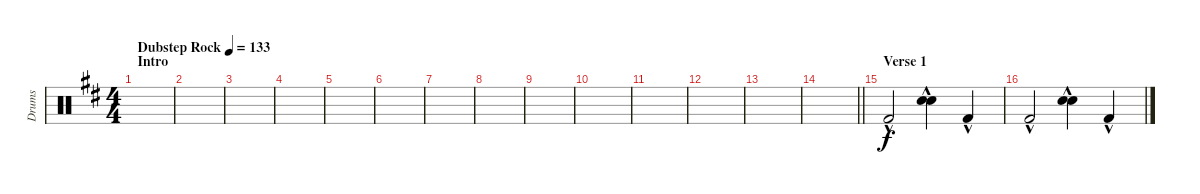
\track ("Drums" "Drums") {instrument percussion}
\staff {score}
\articulation defaults
\ts (4 4)
\section ("" "Intro")
\tempo (133 "Dubstep Rock")
\clef neutral
\ks bminor
|
|
|
|
|
|
|
|
|
|
|
|
|
\barLineRight lightlight
|
\section ("" "Verse 1")
"Kick (hit) 2"{hac}.2 ("Hand Clap (hit)"{hac} "Snare (hit) 2"{hac}).4 "Kick (hit) 2"{hac}.4 |
"Kick (hit) 2"{hac}.2 ("Hand Clap (hit)"{hac} "Snare (hit) 2"{hac}).4 "Kick (hit) 2"{hac}.4
